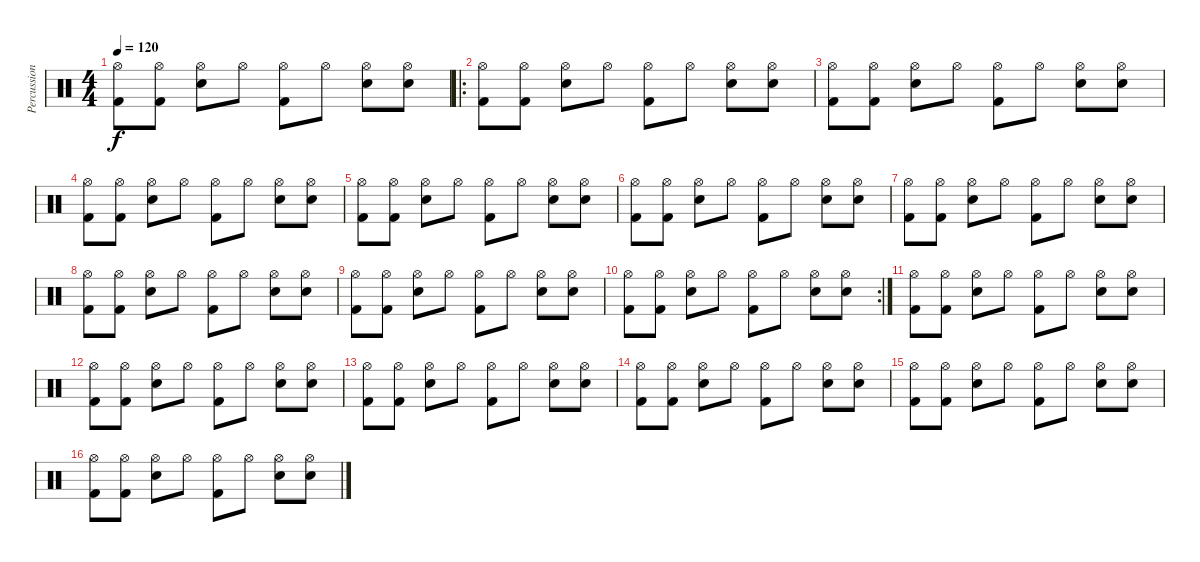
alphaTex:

\track ("Percussion" "Percussion") {instrument percussion}
\staff {score}
\articulation defaults
\ts (4 4)
\tempo 120
\clef neutral
\ks c
("Kick (hit) 2" "Hi-Hat (open)").8{dy f} ("Kick (hit) 2" "Hi-Hat (open)").8 ("Snare (hit) 2" "Hi-Hat (open)").8 "Hi-Hat (open)".8 ("Kick (hit) 2" "Hi-Hat (open)").8 "Hi-Hat (open)".8 ("Snare (hit) 2" "Hi-Hat (open)").8 ("Snare (hit) 2" "Hi-Hat (open)").8 |
\ro
("Kick (hit) 2" "Hi-Hat (open)").8 ("Kick (hit) 2" "Hi-Hat (open)").8 ("Snare (hit) 2" "Hi-Hat (open)").8 "Hi-Hat (open)".8 ("Kick (hit) 2" "Hi-Hat (open)").8 "Hi-Hat (open)".8 ("Snare (hit) 2" "Hi-Hat (open)").8 ("Snare (hit) 2" "Hi-Hat (open)").8 |
("Kick (hit) 2" "Hi-Hat (open)").8 ("Kick (hit) 2" "Hi-Hat (open)").8 ("Snare (hit) 2" "Hi-Hat (open)").8 "Hi-Hat (open)".8 ("Kick (hit) 2" "Hi-Hat (open)").8 "Hi-Hat (open)".8 ("Snare (hit) 2" "Hi-Hat (open)").8 ("Snare (hit) 2" "Hi-Hat (open)").8 |
("Kick (hit) 2" "Hi-Hat (open)").8 ("Kick (hit) 2" "Hi-Hat (open)").8 ("Snare (hit) 2" "Hi-Hat (open)").8 "Hi-Hat (open)".8 ("Kick (hit) 2" "Hi-Hat (open)").8 "Hi-Hat (open)".8 ("Snare (hit) 2" "Hi-Hat (open)").8 ("Snare (hit) 2" "Hi-Hat (open)").8 |
("Kick (hit) 2" "Hi-Hat (open)").8 ("Kick (hit) 2" "Hi-Hat (open)").8 ("Snare (hit) 2" "Hi-Hat (open)").8 "Hi-Hat (open)".8 ("Kick (hit) 2" "Hi-Hat (open)").8 "Hi-Hat (open)".8 ("Snare (hit) 2" "Hi-Hat (open)").8 ("Snare (hit) 2" "Hi-Hat (open)").8 |
("Kick (hit) 2" "Hi-Hat (open)").8 ("Kick (hit) 2" "Hi-Hat (open)").8 ("Snare (hit) 2" "Hi-Hat (open)").8 "Hi-Hat (open)".8 ("Kick (hit) 2" "Hi-Hat (open)").8 "Hi-Hat (open)".8 ("Snare (hit) 2" "Hi-Hat (open)").8 ("Snare (hit) 2" "Hi-Hat (open)").8 |
("Kick (hit) 2" "Hi-Hat (open)").8 ("Kick (hit) 2" "Hi-Hat (open)").8 ("Snare (hit) 2" "Hi-Hat (open)").8 "Hi-Hat (open)".8 ("Kick (hit) 2" "Hi-Hat (open)").8 "Hi-Hat (open)".8 ("Snare (hit) 2" "Hi-Hat (open)").8 ("Snare (hit) 2" "Hi-Hat (open)").8 |
("Kick (hit) 2" "Hi-Hat (open)").8 ("Kick (hit) 2" "Hi-Hat (open)").8 ("Snare (hit) 2" "Hi-Hat (open)").8 "Hi-Hat (open)".8 ("Kick (hit) 2" "Hi-Hat (open)").8 "Hi-Hat (open)".8 ("Snare (hit) 2" "Hi-Hat (open)").8 ("Snare (hit) 2" "Hi-Hat (open)").8 |
("Kick (hit) 2" "Hi-Hat (open)").8 ("Kick (hit) 2" "Hi-Hat (open)").8 ("Snare (hit) 2" "Hi-Hat (open)").8 "Hi-Hat (open)".8 ("Kick (hit) 2" "Hi-Hat (open)").8 "Hi-Hat (open)".8 ("Snare (hit) 2" "Hi-Hat (open)").8 ("Snare (hit) 2" "Hi-Hat (open)").8 |
\rc 2
("Kick (hit) 2" "Hi-Hat (open)").8 ("Kick (hit) 2" "Hi-Hat (open)").8 ("Snare (hit) 2" "Hi-Hat (open)").8 "Hi-Hat (open)".8 ("Kick (hit) 2" "Hi-Hat (open)").8 "Hi-Hat (open)".8 ("Snare (hit) 2" "Hi-Hat (open)").8 ("Snare (hit) 2" "Hi-Hat (open)").8 |
("Kick (hit) 2" "Hi-Hat (open)").8 ("Kick (hit) 2" "Hi-Hat (open)").8 ("Snare (hit) 2" "Hi-Hat (open)").8 "Hi-Hat (open)".8 ("Kick (hit) 2" "Hi-Hat (open)").8 "Hi-Hat (open)".8 ("Snare (hit) 2" "Hi-Hat (open)").8 ("Snare (hit) 2" "Hi-Hat (open)").8 |
("Kick (hit) 2" "Hi-Hat (open)").8 ("Kick (hit) 2" "Hi-Hat (open)").8 ("Snare (hit) 2" "Hi-Hat (open)").8 "Hi-Hat (open)".8 ("Kick (hit) 2" "Hi-Hat (open)").8 "Hi-Hat (open)".8 ("Snare (hit) 2" "Hi-Hat (open)").8 ("Snare (hit) 2" "Hi-Hat (open)").8 |
("Kick (hit) 2" "Hi-Hat (open)").8 ("Kick (hit) 2" "Hi-Hat (open)").8 ("Snare (hit) 2" "Hi-Hat (open)").8 "Hi-Hat (open)".8 ("Kick (hit) 2" "Hi-Hat (open)").8 "Hi-Hat (open)".8 ("Snare (hit) 2" "Hi-Hat (open)").8 ("Snare (hit) 2" "Hi-Hat (open)").8 |
("Kick (hit) 2" "Hi-Hat (open)").8 ("Kick (hit) 2" "Hi-Hat (open)").8 ("Snare (hit) 2" "Hi-Hat (open)").8 "Hi-Hat (open)".8 ("Kick (hit) 2" "Hi-Hat (open)").8 "Hi-Hat (open)".8 ("Snare (hit) 2" "Hi-Hat (open)").8 ("Snare (hit) 2" "Hi-Hat (open)").8 |
("Kick (hit) 2" "Hi-Hat (open)").8 ("Kick (hit) 2" "Hi-Hat (open)").8 ("Snare (hit) 2" "Hi-Hat (open)").8 "Hi-Hat (open)".8 ("Kick (hit) 2" "Hi-Hat (open)").8 "Hi-Hat (open)".8 ("Snare (hit) 2" "Hi-Hat (open)").8 ("Snare (hit) 2" "Hi-Hat (open)").8 |
("Kick (hit) 2" "Hi-Hat (open)").8 ("Kick (hit) 2" "Hi-Hat (open)").8 ("Snare (hit) 2" "Hi-Hat (open)").8 "Hi-Hat (open)".8 ("Kick (hit) 2" "Hi-Hat (open)").8 "Hi-Hat (open)".8 ("Snare (hit) 2" "Hi-Hat (open)").8 ("Snare (hit) 2" "Hi-Hat (open)").8
